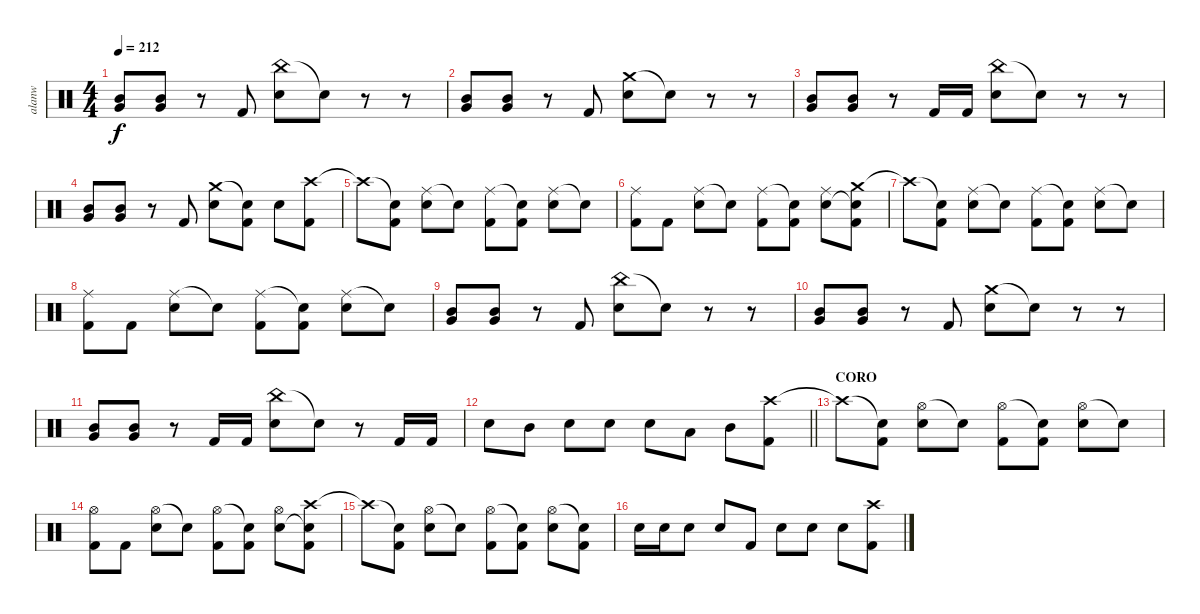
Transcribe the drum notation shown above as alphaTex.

\track ("alanw" "alanw") {instrument percussion}
\staff {score}
\articulation defaults
\ts (4 4)
\tempo 212
\clef neutral
\ks c
("Mid Tom (hit)" "Very Low Tom (hit)").8{dy f} ("Mid Tom (hit)" "Very Low Tom (hit)").8 r.8 "Kick (hit) 2".8 ("China (hit)" "Electric Snare (hit)").8 "Snare (hit)"{t}.8 r.8 r.8 |
("Mid Tom (hit)" "Very Low Tom (hit)").8 ("Mid Tom (hit)" "Very Low Tom (hit)").8 r.8 "Kick (hit) 2".8 ("Crash medium (hit)" "Electric Snare (hit)").8 "Snare (hit)"{t}.8 r.8 r.8 |
("Mid Tom (hit)" "Very Low Tom (hit)").8 ("Mid Tom (hit)" "Very Low Tom (hit)").8 r.8 "Kick (hit) 2".16 "Kick (hit) 2".16 ("China (hit)" "Electric Snare (hit)").8 "Snare (hit)"{t}.8 r.8 r.8 |
("Mid Tom (hit)" "Very Low Tom (hit)").8 ("Mid Tom (hit)" "Very Low Tom (hit)").8 r.8 "Kick (hit) 2".8 ("Crash medium (hit)" "Electric Snare (hit)").8 ("Snare (hit)"{t} "Kick (hit) 2").8 "Electric Snare (hit)".8 ("Crash high (hit)" "Kick (hit) 2").8 |
"Crash high (hit)"{t}.8 ("Snare (hit)"{t} "Kick (hit) 2").8 ("Ride (middle)" "Electric Snare (hit)").8 "Snare (hit)"{t}.8 ("Ride (middle)" "Kick (hit) 2").8 ("Snare (hit)"{t} "Kick (hit) 2").8 ("Ride (middle)" "Electric Snare (hit)").8 "Snare (hit)"{t}.8 |
("Ride (middle)" "Kick (hit) 2").8 "Kick (hit) 2".8 ("Ride (middle)" "Electric Snare (hit)").8 "Snare (hit)"{t}.8 ("Ride (middle)" "Kick (hit) 2").8 ("Snare (hit)"{t} "Kick (hit) 2").8 ("Ride (middle)" "Electric Snare (hit)").8 ("Crash medium (hit)" "Snare (hit)"{t} "Kick (hit) 2").8 |
"Crash high (hit)"{t}.8 ("Snare (hit)"{t} "Kick (hit) 2").8 ("Ride (middle)" "Electric Snare (hit)").8 "Snare (hit)"{t}.8 ("Ride (middle)" "Kick (hit) 2").8 ("Snare (hit)"{t} "Kick (hit) 2").8 ("Ride (middle)" "Electric Snare (hit)").8 "Snare (hit)"{t}.8 |
("Ride (middle)" "Kick (hit) 2").8 "Kick (hit) 2".8 ("Ride (middle)" "Electric Snare (hit)").8 "Snare (hit)"{t}.8 ("Ride (middle)" "Kick (hit) 2").8 ("Snare (hit)"{t} "Kick (hit) 2").8 ("Ride (middle)" "Electric Snare (hit)").8 "Snare (hit)"{t}.8 |
("Mid Tom (hit)" "Very Low Tom (hit)").8 ("Mid Tom (hit)" "Very Low Tom (hit)").8 r.8 "Kick (hit) 2".8 ("China (hit)" "Electric Snare (hit)").8 "Snare (hit)"{t}.8 r.8 r.8 |
("Mid Tom (hit)" "Very Low Tom (hit)").8 ("Mid Tom (hit)" "Very Low Tom (hit)").8 r.8 "Kick (hit) 2".8 ("Crash medium (hit)" "Electric Snare (hit)").8 "Snare (hit)"{t}.8 r.8 r.8 |
("Mid Tom (hit)" "Very Low Tom (hit)").8 ("Mid Tom (hit)" "Very Low Tom (hit)").8 r.8 "Kick (hit) 2".16 "Kick (hit) 2".16 ("China (hit)" "Electric Snare (hit)").8 "Snare (hit)"{t}.8 r.8 "Kick (hit) 2".16 "Kick (hit) 2".16 |
\barLineRight lightlight "Electric Snare (hit)".8 "Mid Tom (hit)".8 "Electric Snare (hit)".8 "Electric Snare (hit)".8 "Electric Snare (hit)".8 "Low Tom (hit)".8 "Mid Tom (hit)".8
("Crash high (hit)" "Kick (hit) 2").8 |
\section ("" "CORO")
"Crash high (hit)"{t}.8 ("Snare (hit)"{t} "Kick (hit) 2").8 ("Hi-Hat (open)" "Electric Snare (hit)").8 "Snare (hit)"{t}.8 ("Hi-Hat (open)" "Kick (hit) 2").8 ("Snare (hit)"{t} "Kick (hit) 2").8 ("Hi-Hat (open)" "Electric Snare (hit)").8 "Snare (hit)"{t}.8 |
("Hi-Hat (open)" "Kick (hit) 2").8 "Kick (hit) 2".8 ("Hi-Hat (open)" "Electric Snare (hit)").8 "Snare (hit)"{t}.8 ("Hi-Hat (open)" "Kick (hit) 2").8 ("Snare (hit)"{t} "Kick (hit) 2").8 ("Hi-Hat (open)" "Electric Snare (hit)").8 ("Crash high (hit)" "Snare (hit)"{t} "Kick (hit) 2").8 |
"Crash high (hit)"{t}.8 ("Snare (hit)"{t} "Kick (hit) 2").8 ("Hi-Hat (open)" "Electric Snare (hit)").8 "Snare (hit)"{t}.8 ("Hi-Hat (open)" "Kick (hit) 2").8 ("Snare (hit)"{t} "Kick (hit) 2").8 ("Hi-Hat (open)" "Electric Snare (hit)").8 ("Snare (hit)"{t} "Kick (hit) 2").8 |
"Electric Snare (hit)".16 "Electric Snare (hit)".16 "Electric Snare (hit)".8 "Electric Snare (hit)".8 "Kick (hit) 2".8 "Electric Snare (hit)".8 "Electric Snare (hit)".8 "Electric Snare (hit)".8 ("Crash high (hit)" "Kick (hit) 2").8
